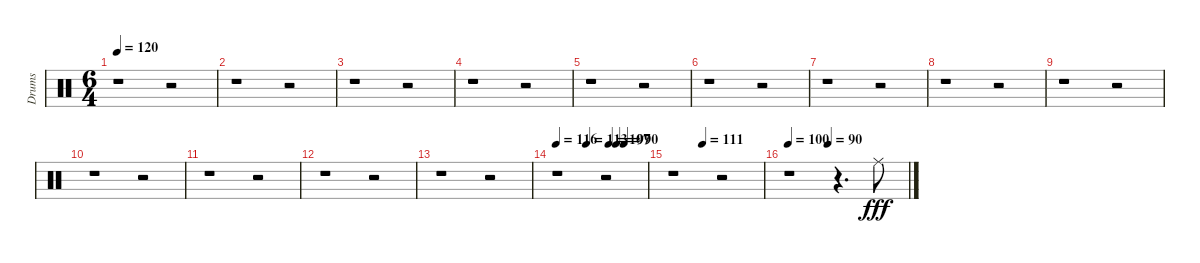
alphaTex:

\track ("Drums" "Drums") {instrument percussion}
\staff {score}
\articulation defaults
\ts (6 4)
\tempo 120
\clef neutral
\ks c
r.1{dy fff} r.2 |
r.1 r.2 |
r.1 r.2 |
r.1 r.2 |
r.1 r.2 |
r.1 r.2 |
r.1 r.2 |
r.1 r.2 |
r.1 r.2 |
r.1 r.2 |
r.1 r.2 |
r.1 r.2 |
r.1 r.2 |
\tempo (113 0.3333333333333333)
\tempo 116
\tempo (107 0.5833333333333334)
\tempo (97 0.6666666666666666)
\tempo (90 0.75)
r.1 r.2 |
\tempo (111 0.3333333333333333)
r.1 r.2 |
\tempo (90 0.3333333333333333)
\tempo 100
r.1 r.4{d} "Ride (middle)".8
